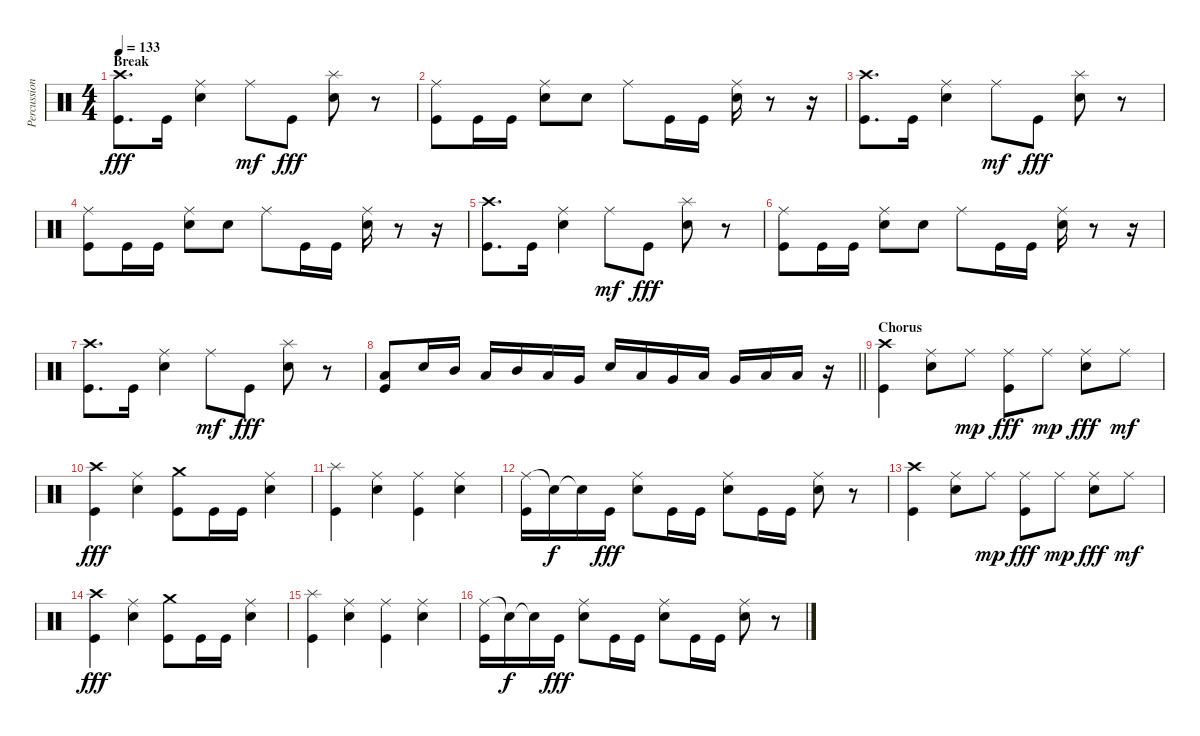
\track ("Percussion/Nicko McBrain" "Percussion") {instrument percussion}
\staff {score}
\articulation defaults
\ts (4 4)
\section ("" "Break")
\tempo 133
\clef neutral
\ks c
("Crash high (hit)" "Kick (hit)").8{d dy fff} "Kick (hit)".16 ("Ride (middle)" "Electric Snare (hit)").4 "Ride (middle)".8{dy mf} "Kick (hit)".8{dy fff} ("Splash (hit)" "Electric Snare (hit)").8 r.8 |
("Ride (middle)" "Kick (hit)").8 "Kick (hit)".16 "Kick (hit)".16 ("Ride (middle)" "Electric Snare (hit)").8 "Electric Snare (hit)".8 "Ride (middle)".8 "Kick (hit)".16 "Kick (hit)".16 ("Ride (middle)" "Electric Snare (hit)").16 r.8 r.16 |
("Crash high (hit)" "Kick (hit)").8{d} "Kick (hit)".16 ("Ride (middle)" "Electric Snare (hit)").4 "Ride (middle)".8{dy mf} "Kick (hit)".8{dy fff} ("Splash (hit)" "Electric Snare (hit)").8 r.8 |
("Ride (middle)" "Kick (hit)").8 "Kick (hit)".16 "Kick (hit)".16 ("Ride (middle)" "Electric Snare (hit)").8 "Electric Snare (hit)".8 "Ride (middle)".8 "Kick (hit)".16 "Kick (hit)".16 ("Ride (middle)" "Electric Snare (hit)").16 r.8 r.16 |
("Crash high (hit)" "Kick (hit)").8{d} "Kick (hit)".16 ("Ride (middle)" "Electric Snare (hit)").4 "Ride (middle)".8{dy mf} "Kick (hit)".8{dy fff} ("Splash (hit)" "Electric Snare (hit)").8 r.8 |
("Ride (middle)" "Kick (hit)").8 "Kick (hit)".16 "Kick (hit)".16 ("Ride (middle)" "Electric Snare (hit)").8 "Electric Snare (hit)".8 "Ride (middle)".8 "Kick (hit)".16 "Kick (hit)".16 ("Ride (middle)" "Electric Snare (hit)").16 r.8 r.16 |
("Crash high (hit)" "Kick (hit)").8{d} "Kick (hit)".16 ("Ride (middle)" "Electric Snare (hit)").4 "Ride (middle)".8{dy mf} "Kick (hit)".8{dy fff} ("Splash (hit)" "Electric Snare (hit)").8 r.8 |
\barLineRight lightlight
("Low Floor Tom (hit)" "Kick (hit)").8 "Electric Snare (hit)".16 "Mid Tom (hit)".16 "Low Tom (hit)".16 "Mid Tom (hit)".16 "Low Tom (hit)".16 "Very Low Tom (hit)".16 "Snare (hit) 2".16 "Low Tom (hit)".16 "Very Low Tom (hit)".16 "Low Floor Tom (hit)".16 "Very Low Tom (hit)".16 "Low Floor Tom (hit)".16 "Low Floor Tom (hit)".16 r.16 |
\section ("" "Chorus")
("Crash high (hit)" "Kick (hit)").4 ("Ride (middle)" "Electric Snare (hit)").8 "Ride (middle)".8{dy mp} ("Ride (middle)" "Kick (hit)").8{dy fff} "Ride (middle)".8{dy mp} ("Ride (middle)" "Electric Snare (hit)").8{dy fff} "Ride (middle)".8{dy mf} |
("Crash high (hit)" "Kick (hit)").4{dy fff} ("Ride (middle)" "Electric Snare (hit)").4 ("Crash medium (hit)" "Kick (hit)").8 "Kick (hit)".16 "Kick (hit)".16 ("Ride (middle)" "Electric Snare (hit)").4 |
("Splash (hit)" "Kick (hit)").4 ("Ride (middle)" "Electric Snare (hit)").4 ("Ride (middle)" "Kick (hit)").4 ("Ride (middle)" "Electric Snare (hit)").4 |
("Ride (middle)" "Kick (hit)").16 "Snare (hit)"{t}.16{dy f} "Snare (hit)"{t}.16 "Kick (hit)".16{dy fff} ("Ride (middle)" "Electric Snare (hit)").8 "Kick (hit)".16 "Kick (hit)".16 ("Ride (middle)" "Electric Snare (hit)").8 "Kick (hit)".16 "Kick (hit)".16 ("Ride (middle)" "Electric Snare (hit)").8 r.8 |
("Crash high (hit)" "Kick (hit)").4 ("Ride (middle)" "Electric Snare (hit)").8 "Ride (middle)".8{dy mp} ("Ride (middle)" "Kick (hit)").8{dy fff} "Ride (middle)".8{dy mp} ("Ride (middle)" "Electric Snare (hit)").8{dy fff} "Ride (middle)".8{dy mf} |
("Crash high (hit)" "Kick (hit)").4{dy fff} ("Ride (middle)" "Electric Snare (hit)").4 ("Crash medium (hit)" "Kick (hit)").8 "Kick (hit)".16 "Kick (hit)".16 ("Ride (middle)" "Electric Snare (hit)").4 |
("Splash (hit)" "Kick (hit)").4 ("Ride (middle)" "Electric Snare (hit)").4 ("Ride (middle)" "Kick (hit)").4 ("Ride (middle)" "Electric Snare (hit)").4 |
("Ride (middle)" "Kick (hit)").16 "Snare (hit)"{t}.16{dy f} "Snare (hit)"{t}.16 "Kick (hit)".16{dy fff} ("Ride (middle)" "Electric Snare (hit)").8 "Kick (hit)".16 "Kick (hit)".16 ("Ride (middle)" "Electric Snare (hit)").8 "Kick (hit)".16 "Kick (hit)".16 ("Ride (middle)" "Electric Snare (hit)").8 r.8
